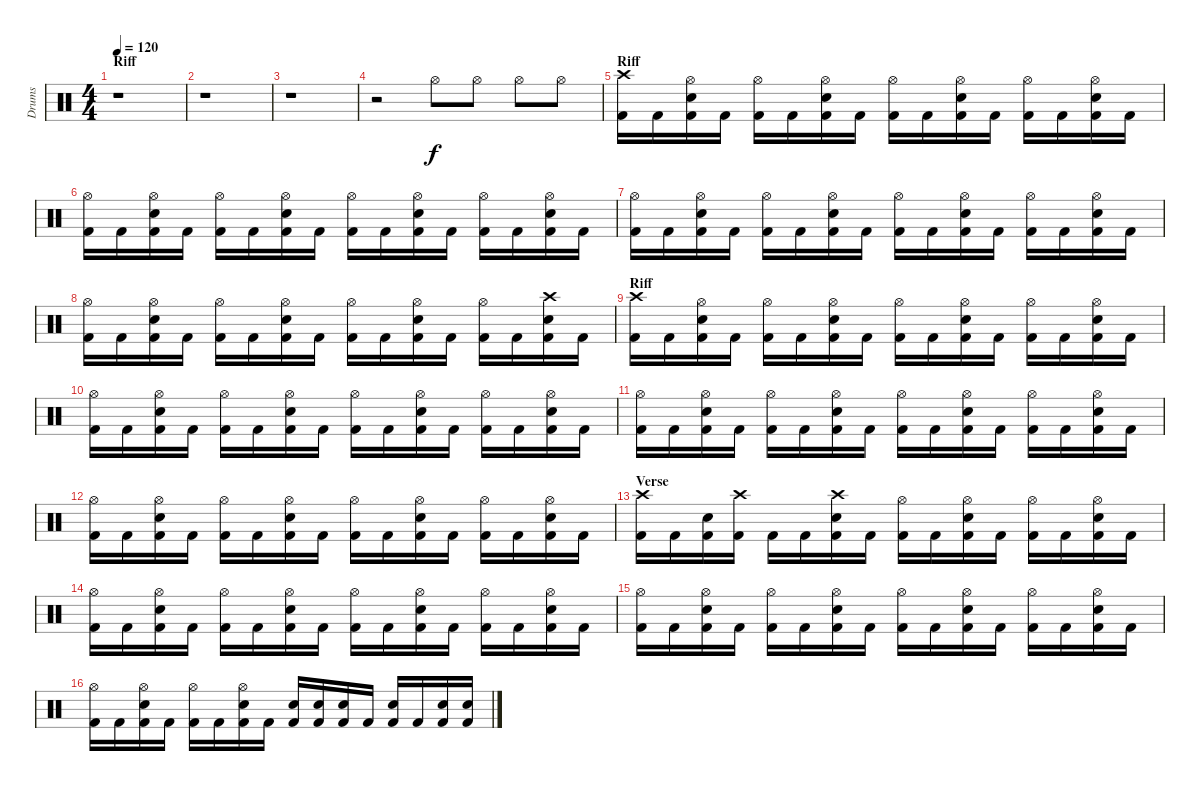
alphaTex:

\track ("Drums" "Drums") {instrument percussion}
\staff {score}
\articulation defaults
\ts (4 4)
\section ("" "Riff")
\tempo 120
\clef neutral
\ks c
r.1{dy f} |
r.1 |
r.1 |
r.2 "Hi-Hat (open)".8 "Hi-Hat (open)".8 "Hi-Hat (open)".8 "Hi-Hat (open)".8 |
\section ("" "Riff")
("Crash high (hit)" "Kick (hit) 2").16 "Kick (hit) 2".16 ("Hi-Hat (open)" "Snare (hit) 2" "Kick (hit) 2").16 "Kick (hit) 2".16 ("Hi-Hat (open)" "Kick (hit) 2").16 "Kick (hit) 2".16 ("Hi-Hat (open)" "Snare (hit) 2" "Kick (hit) 2").16 "Kick (hit) 2".16 ("Hi-Hat (open)" "Kick (hit) 2").16 "Kick (hit) 2".16 ("Hi-Hat (open)" "Snare (hit) 2" "Kick (hit) 2").16 "Kick (hit) 2".16 ("Hi-Hat (open)" "Kick (hit) 2").16 "Kick (hit) 2".16 ("Hi-Hat (open)" "Snare (hit) 2" "Kick (hit) 2").16 "Kick (hit) 2".16 |
("Hi-Hat (open)" "Kick (hit) 2").16 "Kick (hit) 2".16 ("Hi-Hat (open)" "Snare (hit) 2" "Kick (hit) 2").16 "Kick (hit) 2".16 ("Hi-Hat (open)" "Kick (hit) 2").16 "Kick (hit) 2".16 ("Hi-Hat (open)" "Snare (hit) 2" "Kick (hit) 2").16 "Kick (hit) 2".16 ("Hi-Hat (open)" "Kick (hit) 2").16 "Kick (hit) 2".16 ("Hi-Hat (open)" "Snare (hit) 2" "Kick (hit) 2").16 "Kick (hit) 2".16 ("Hi-Hat (open)" "Kick (hit) 2").16 "Kick (hit) 2".16 ("Hi-Hat (open)" "Snare (hit) 2" "Kick (hit) 2").16 "Kick (hit) 2".16 |
("Hi-Hat (open)" "Kick (hit) 2").16 "Kick (hit) 2".16 ("Hi-Hat (open)" "Snare (hit) 2" "Kick (hit) 2").16 "Kick (hit) 2".16 ("Hi-Hat (open)" "Kick (hit) 2").16 "Kick (hit) 2".16 ("Hi-Hat (open)" "Snare (hit) 2" "Kick (hit) 2").16 "Kick (hit) 2".16 ("Hi-Hat (open)" "Kick (hit) 2").16 "Kick (hit) 2".16 ("Hi-Hat (open)" "Snare (hit) 2" "Kick (hit) 2").16 "Kick (hit) 2".16 ("Hi-Hat (open)" "Kick (hit) 2").16 "Kick (hit) 2".16 ("Hi-Hat (open)" "Snare (hit) 2" "Kick (hit) 2").16 "Kick (hit) 2".16 |
("Hi-Hat (open)" "Kick (hit) 2").16 "Kick (hit) 2".16 ("Hi-Hat (open)" "Snare (hit) 2" "Kick (hit) 2").16 "Kick (hit) 2".16 ("Hi-Hat (open)" "Kick (hit) 2").16 "Kick (hit) 2".16 ("Hi-Hat (open)" "Snare (hit) 2" "Kick (hit) 2").16 "Kick (hit) 2".16 ("Hi-Hat (open)" "Kick (hit) 2").16 "Kick (hit) 2".16 ("Hi-Hat (open)" "Snare (hit) 2" "Kick (hit) 2").16 "Kick (hit) 2".16 ("Hi-Hat (open)" "Kick (hit) 2").16 "Kick (hit) 2".16 ("Crash high (hit)" "Snare (hit) 2" "Kick (hit) 2").16 "Kick (hit) 2".16 |
\section ("" "Riff")
("Crash high (hit)" "Kick (hit) 2").16 "Kick (hit) 2".16 ("Hi-Hat (open)" "Snare (hit) 2" "Kick (hit) 2").16 "Kick (hit) 2".16 ("Hi-Hat (open)" "Kick (hit) 2").16 "Kick (hit) 2".16 ("Hi-Hat (open)" "Snare (hit) 2" "Kick (hit) 2").16 "Kick (hit) 2".16 ("Hi-Hat (open)" "Kick (hit) 2").16 "Kick (hit) 2".16 ("Hi-Hat (open)" "Snare (hit) 2" "Kick (hit) 2").16 "Kick (hit) 2".16 ("Hi-Hat (open)" "Kick (hit) 2").16 "Kick (hit) 2".16 ("Hi-Hat (open)" "Snare (hit) 2" "Kick (hit) 2").16 "Kick (hit) 2".16 |
("Hi-Hat (open)" "Kick (hit) 2").16 "Kick (hit) 2".16 ("Hi-Hat (open)" "Snare (hit) 2" "Kick (hit) 2").16 "Kick (hit) 2".16 ("Hi-Hat (open)" "Kick (hit) 2").16 "Kick (hit) 2".16 ("Hi-Hat (open)" "Snare (hit) 2" "Kick (hit) 2").16 "Kick (hit) 2".16 ("Hi-Hat (open)" "Kick (hit) 2").16 "Kick (hit) 2".16 ("Hi-Hat (open)" "Snare (hit) 2" "Kick (hit) 2").16 "Kick (hit) 2".16 ("Hi-Hat (open)" "Kick (hit) 2").16 "Kick (hit) 2".16 ("Hi-Hat (open)" "Snare (hit) 2" "Kick (hit) 2").16 "Kick (hit) 2".16 |
("Hi-Hat (open)" "Kick (hit) 2").16 "Kick (hit) 2".16 ("Hi-Hat (open)" "Snare (hit) 2" "Kick (hit) 2").16 "Kick (hit) 2".16 ("Hi-Hat (open)" "Kick (hit) 2").16 "Kick (hit) 2".16 ("Hi-Hat (open)" "Snare (hit) 2" "Kick (hit) 2").16 "Kick (hit) 2".16 ("Hi-Hat (open)" "Kick (hit) 2").16 "Kick (hit) 2".16 ("Hi-Hat (open)" "Snare (hit) 2" "Kick (hit) 2").16 "Kick (hit) 2".16 ("Hi-Hat (open)" "Kick (hit) 2").16 "Kick (hit) 2".16 ("Hi-Hat (open)" "Snare (hit) 2" "Kick (hit) 2").16 "Kick (hit) 2".16 |
("Hi-Hat (open)" "Kick (hit) 2").16 "Kick (hit) 2".16 ("Hi-Hat (open)" "Snare (hit) 2" "Kick (hit) 2").16 "Kick (hit) 2".16 ("Hi-Hat (open)" "Kick (hit) 2").16 "Kick (hit) 2".16 ("Hi-Hat (open)" "Snare (hit) 2" "Kick (hit) 2").16 "Kick (hit) 2".16 ("Hi-Hat (open)" "Kick (hit) 2").16 "Kick (hit) 2".16 ("Hi-Hat (open)" "Snare (hit) 2" "Kick (hit) 2").16 "Kick (hit) 2".16 ("Hi-Hat (open)" "Kick (hit) 2").16 "Kick (hit) 2".16 ("Hi-Hat (open)" "Snare (hit) 2" "Kick (hit) 2").16 "Kick (hit) 2".16 |
\section ("" "Verse")
("Crash high (hit)" "Kick (hit) 2").16 "Kick (hit) 2".16 ("Snare (hit) 2" "Kick (hit) 2").16 ("Crash high (hit)" "Kick (hit) 2").16 "Kick (hit) 2".16 "Kick (hit) 2".16 ("Crash high (hit)" "Snare (hit) 2" "Kick (hit) 2").16 "Kick (hit) 2".16 ("Hi-Hat (open)" "Kick (hit) 2").16 "Kick (hit) 2".16 ("Hi-Hat (open)" "Snare (hit) 2" "Kick (hit) 2").16 "Kick (hit) 2".16 ("Hi-Hat (open)" "Kick (hit) 2").16 "Kick (hit) 2".16 ("Hi-Hat (open)" "Snare (hit) 2" "Kick (hit) 2").16 "Kick (hit) 2".16 |
("Hi-Hat (open)" "Kick (hit) 2").16 "Kick (hit) 2".16 ("Hi-Hat (open)" "Snare (hit) 2" "Kick (hit) 2").16 "Kick (hit) 2".16 ("Hi-Hat (open)" "Kick (hit) 2").16 "Kick (hit) 2".16 ("Hi-Hat (open)" "Snare (hit) 2" "Kick (hit) 2").16 "Kick (hit) 2".16 ("Hi-Hat (open)" "Kick (hit) 2").16 "Kick (hit) 2".16 ("Hi-Hat (open)" "Snare (hit) 2" "Kick (hit) 2").16 "Kick (hit) 2".16 ("Hi-Hat (open)" "Kick (hit) 2").16 "Kick (hit) 2".16 ("Hi-Hat (open)" "Snare (hit) 2" "Kick (hit) 2").16 "Kick (hit) 2".16 |
("Hi-Hat (open)" "Kick (hit) 2").16 "Kick (hit) 2".16 ("Hi-Hat (open)" "Snare (hit) 2" "Kick (hit) 2").16 "Kick (hit) 2".16 ("Hi-Hat (open)" "Kick (hit) 2").16 "Kick (hit) 2".16 ("Hi-Hat (open)" "Snare (hit) 2" "Kick (hit) 2").16 "Kick (hit) 2".16 ("Hi-Hat (open)" "Kick (hit) 2").16 "Kick (hit) 2".16 ("Hi-Hat (open)" "Snare (hit) 2" "Kick (hit) 2").16 "Kick (hit) 2".16 ("Hi-Hat (open)" "Kick (hit) 2").16 "Kick (hit) 2".16 ("Hi-Hat (open)" "Snare (hit) 2" "Kick (hit) 2").16 "Kick (hit) 2".16 |
("Hi-Hat (open)" "Kick (hit) 2").16 "Kick (hit) 2".16 ("Hi-Hat (open)" "Snare (hit) 2" "Kick (hit) 2").16 "Kick (hit) 2".16 ("Hi-Hat (open)" "Kick (hit) 2").16 "Kick (hit) 2".16 ("Hi-Hat (open)" "Snare (hit) 2" "Kick (hit) 2").16 "Kick (hit) 2".16 ("Snare (hit) 2" "Kick (hit) 2").16 ("Snare (hit) 2" "Kick (hit) 2").16 ("Snare (hit) 2" "Kick (hit) 2").16 "Kick (hit) 2".16 ("Snare (hit) 2" "Kick (hit) 2").16 "Kick (hit) 2".16 ("Snare (hit) 2" "Kick (hit) 2").16 ("Snare (hit) 2" "Kick (hit) 2").16
